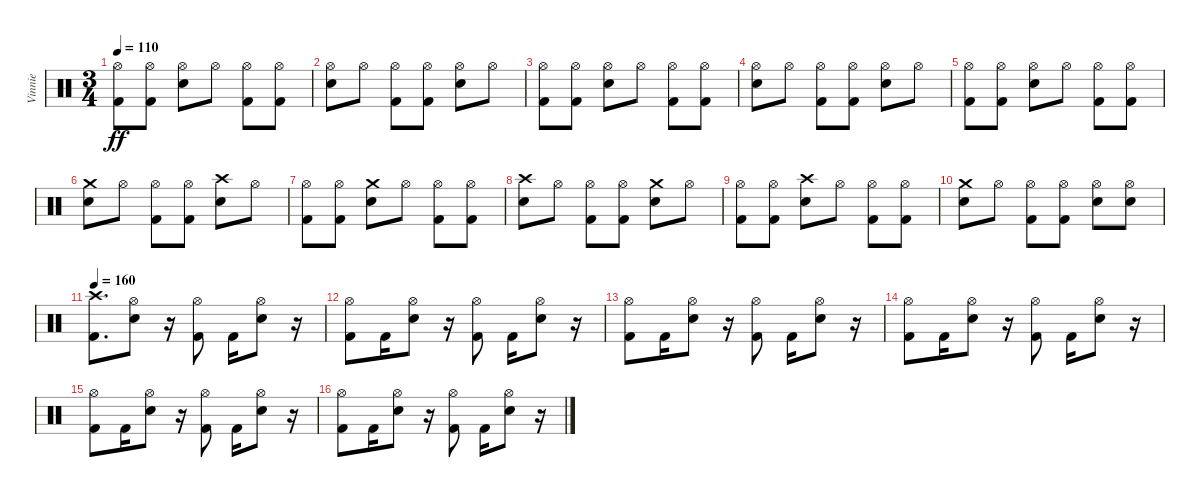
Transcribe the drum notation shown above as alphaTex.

\track ("Vinnie" "Vinnie") {instrument percussion}
\staff {score}
\articulation defaults
\ts (3 4)
\tempo 110
\clef neutral
\ks c
("Kick (hit) 2" "Hi-Hat (open)").8{dy ff} ("Kick (hit) 2" "Hi-Hat (open)").8 ("Electric Snare (hit)" "Hi-Hat (open)").8 "Hi-Hat (open)".8 ("Kick (hit) 2" "Hi-Hat (open)").8 ("Kick (hit) 2" "Hi-Hat (open)").8 |
("Electric Snare (hit)" "Hi-Hat (open)").8 "Hi-Hat (open)".8 ("Kick (hit) 2" "Hi-Hat (open)").8 ("Kick (hit) 2" "Hi-Hat (open)").8 ("Electric Snare (hit)" "Hi-Hat (open)").8 "Hi-Hat (open)".8 |
("Kick (hit) 2" "Hi-Hat (open)").8 ("Kick (hit) 2" "Hi-Hat (open)").8 ("Electric Snare (hit)" "Hi-Hat (open)").8 "Hi-Hat (open)".8 ("Kick (hit) 2" "Hi-Hat (open)").8 ("Kick (hit) 2" "Hi-Hat (open)").8 |
("Electric Snare (hit)" "Hi-Hat (open)").8 "Hi-Hat (open)".8 ("Kick (hit) 2" "Hi-Hat (open)").8 ("Kick (hit) 2" "Hi-Hat (open)").8 ("Electric Snare (hit)" "Hi-Hat (open)").8 "Hi-Hat (open)".8 |
("Kick (hit) 2" "Hi-Hat (open)").8 ("Kick (hit) 2" "Hi-Hat (open)").8 ("Electric Snare (hit)" "Hi-Hat (open)").8 "Hi-Hat (open)".8 ("Kick (hit) 2" "Hi-Hat (open)").8 ("Kick (hit) 2" "Hi-Hat (open)").8 |
("Electric Snare (hit)" "Crash medium (hit)").8 "Hi-Hat (open)".8 ("Kick (hit) 2" "Hi-Hat (open)").8 ("Kick (hit) 2" "Hi-Hat (open)").8 ("Electric Snare (hit)" "Crash high (hit)").8 "Hi-Hat (open)".8 |
("Kick (hit) 2" "Hi-Hat (open)").8 ("Kick (hit) 2" "Hi-Hat (open)").8 ("Electric Snare (hit)" "Crash medium (hit)").8 "Hi-Hat (open)".8 ("Kick (hit) 2" "Hi-Hat (open)").8 ("Kick (hit) 2" "Hi-Hat (open)").8 |
("Electric Snare (hit)" "Crash high (hit)").8 "Hi-Hat (open)".8 ("Kick (hit) 2" "Hi-Hat (open)").8 ("Kick (hit) 2" "Hi-Hat (open)").8 ("Electric Snare (hit)" "Crash medium (hit)").8 "Hi-Hat (open)".8 |
("Kick (hit) 2" "Hi-Hat (open)").8 ("Kick (hit) 2" "Hi-Hat (open)").8 ("Electric Snare (hit)" "Crash high (hit)").8 "Hi-Hat (open)".8 ("Kick (hit) 2" "Hi-Hat (open)").8 ("Kick (hit) 2" "Hi-Hat (open)").8 |
("Electric Snare (hit)" "Crash medium (hit)").8 "Hi-Hat (open)".8 ("Kick (hit) 2" "Hi-Hat (open)").8 ("Kick (hit) 2" "Hi-Hat (open)").8 ("Electric Snare (hit)" "Hi-Hat (open)").8 ("Hi-Hat (open)" "Electric Snare (hit)").8 |
\tempo 160
("Kick (hit) 2" "Crash high (hit)").8{d} ("Electric Snare (hit)" "Hi-Hat (open)").8 r.16 ("Kick (hit) 2" "Hi-Hat (open)").8 "Kick (hit) 2".16 ("Electric Snare (hit)" "Hi-Hat (open)").8 r.16 |
("Kick (hit) 2" "Hi-Hat (open)").8 "Kick (hit) 2".16 ("Electric Snare (hit)" "Hi-Hat (open)").8 r.16 ("Kick (hit) 2" "Hi-Hat (open)").8 "Kick (hit) 2".16 ("Electric Snare (hit)" "Hi-Hat (open)").8 r.16 |
("Kick (hit) 2" "Hi-Hat (open)").8 "Kick (hit) 2".16 ("Electric Snare (hit)" "Hi-Hat (open)").8 r.16 ("Kick (hit) 2" "Hi-Hat (open)").8 "Kick (hit) 2".16 ("Electric Snare (hit)" "Hi-Hat (open)").8 r.16 |
("Kick (hit) 2" "Hi-Hat (open)").8 "Kick (hit) 2".16 ("Electric Snare (hit)" "Hi-Hat (open)").8 r.16 ("Kick (hit) 2" "Hi-Hat (open)").8 "Kick (hit) 2".16 ("Electric Snare (hit)" "Hi-Hat (open)").8 r.16 |
("Kick (hit) 2" "Hi-Hat (open)").8 "Kick (hit) 2".16 ("Electric Snare (hit)" "Hi-Hat (open)").8 r.16 ("Kick (hit) 2" "Hi-Hat (open)").8 "Kick (hit) 2".16 ("Electric Snare (hit)" "Hi-Hat (open)").8 r.16 |
("Kick (hit) 2" "Hi-Hat (open)").8 "Kick (hit) 2".16 ("Electric Snare (hit)" "Hi-Hat (open)").8 r.16 ("Kick (hit) 2" "Hi-Hat (open)").8 "Kick (hit) 2".16 ("Electric Snare (hit)" "Hi-Hat (open)").8 r.16
